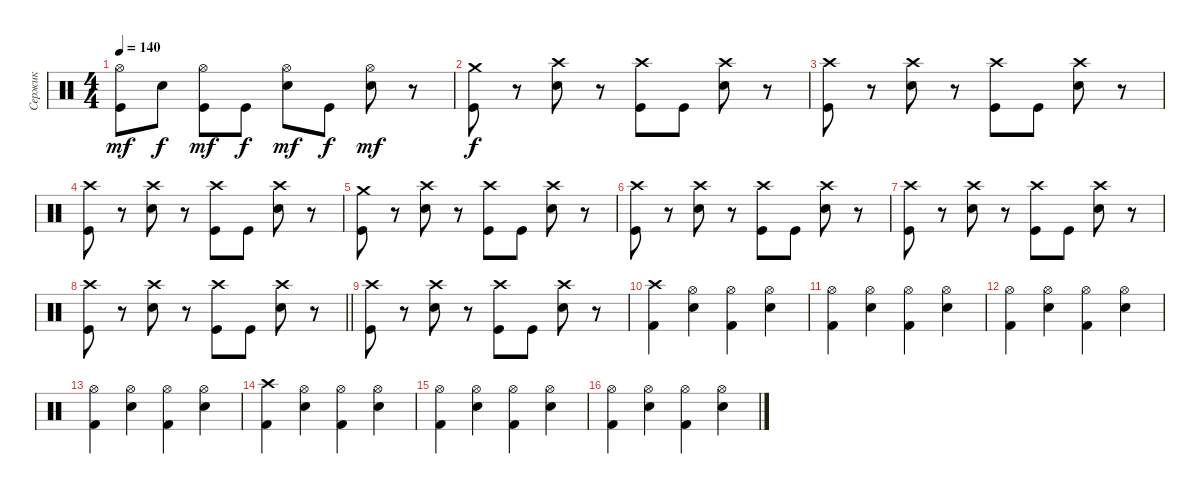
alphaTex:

\track ("Сержик" "Сержик") {instrument percussion}
\staff {score}
\articulation defaults
\ts (4 4)
\tempo 140
\clef neutral
\ks c
("Hi-Hat (open)" "Kick (hit)").8{dy mf} "Electric Snare (hit)".8{dy f} ("Hi-Hat (open)" "Kick (hit)").8{dy mf} "Kick (hit)".8{dy f} ("Hi-Hat (open)" "Electric Snare (hit)").8{dy mf} "Kick (hit)".8{dy f} ("Hi-Hat (open)" "Electric Snare (hit)").8{dy mf} r.8 |
("Crash medium (hit)" "Kick (hit)").8{dy f} r.8 ("Crash high (hit)" "Electric Snare (hit)").8 r.8 ("Crash high (hit)" "Kick (hit)").8 "Kick (hit)".8 ("Crash high (hit)" "Electric Snare (hit)").8 r.8 |
("Crash high (hit)" "Kick (hit)").8 r.8 ("Crash high (hit)" "Electric Snare (hit)").8 r.8 ("Crash high (hit)" "Kick (hit)").8 "Kick (hit)".8 ("Crash high (hit)" "Electric Snare (hit)").8 r.8 |
("Crash high (hit)" "Kick (hit)").8 r.8 ("Crash high (hit)" "Electric Snare (hit)").8 r.8 ("Crash high (hit)" "Kick (hit)").8 "Kick (hit)".8 ("Crash high (hit)" "Electric Snare (hit)").8 r.8 |
("Crash medium (hit)" "Kick (hit)").8 r.8 ("Crash high (hit)" "Electric Snare (hit)").8 r.8 ("Crash high (hit)" "Kick (hit)").8 "Kick (hit)".8 ("Crash high (hit)" "Electric Snare (hit)").8 r.8 |
("Crash high (hit)" "Kick (hit)").8 r.8 ("Crash high (hit)" "Electric Snare (hit)").8 r.8 ("Crash high (hit)" "Kick (hit)").8 "Kick (hit)".8 ("Crash high (hit)" "Electric Snare (hit)").8 r.8 |
("Crash high (hit)" "Kick (hit)").8 r.8 ("Crash high (hit)" "Electric Snare (hit)").8 r.8 ("Crash high (hit)" "Kick (hit)").8 "Kick (hit)".8 ("Crash high (hit)" "Electric Snare (hit)").8 r.8 |
\barLineRight lightlight
("Crash high (hit)" "Kick (hit)").8 r.8 ("Crash high (hit)" "Electric Snare (hit)").8 r.8 ("Crash high (hit)" "Kick (hit)").8 "Kick (hit)".8 ("Crash high (hit)" "Electric Snare (hit)").8 r.8 |
("Crash high (hit)" "Kick (hit)").8 r.8 ("Crash high (hit)" "Electric Snare (hit)").8 r.8 ("Crash high (hit)" "Kick (hit)").8 "Kick (hit)".8 ("Crash high (hit)" "Electric Snare (hit)").8 r.8 |
("Crash high (hit)" "Kick (hit) 2").4 ("Hi-Hat (open)" "Electric Snare (hit)").4 ("Hi-Hat (open)" "Kick (hit) 2").4 ("Hi-Hat (open)" "Electric Snare (hit)").4 |
("Hi-Hat (open)" "Kick (hit) 2").4 ("Hi-Hat (open)" "Electric Snare (hit)").4 ("Hi-Hat (open)" "Kick (hit) 2").4 ("Hi-Hat (open)" "Electric Snare (hit)").4 |
("Hi-Hat (open)" "Kick (hit) 2").4 ("Hi-Hat (open)" "Electric Snare (hit)").4 ("Hi-Hat (open)" "Kick (hit) 2").4 ("Hi-Hat (open)" "Electric Snare (hit)").4 |
("Hi-Hat (open)" "Kick (hit) 2").4 ("Hi-Hat (open)" "Electric Snare (hit)").4 ("Hi-Hat (open)" "Kick (hit) 2").4 ("Hi-Hat (open)" "Electric Snare (hit)").4 |
("Crash high (hit)" "Kick (hit) 2").4 ("Hi-Hat (open)" "Electric Snare (hit)").4 ("Hi-Hat (open)" "Kick (hit) 2").4 ("Hi-Hat (open)" "Electric Snare (hit)").4 |
("Hi-Hat (open)" "Kick (hit) 2").4 ("Hi-Hat (open)" "Electric Snare (hit)").4 ("Hi-Hat (open)" "Kick (hit) 2").4 ("Hi-Hat (open)" "Electric Snare (hit)").4 |
("Hi-Hat (open)" "Kick (hit) 2").4 ("Hi-Hat (open)" "Electric Snare (hit)").4 ("Hi-Hat (open)" "Kick (hit) 2").4 ("Hi-Hat (open)" "Electric Snare (hit)").4
